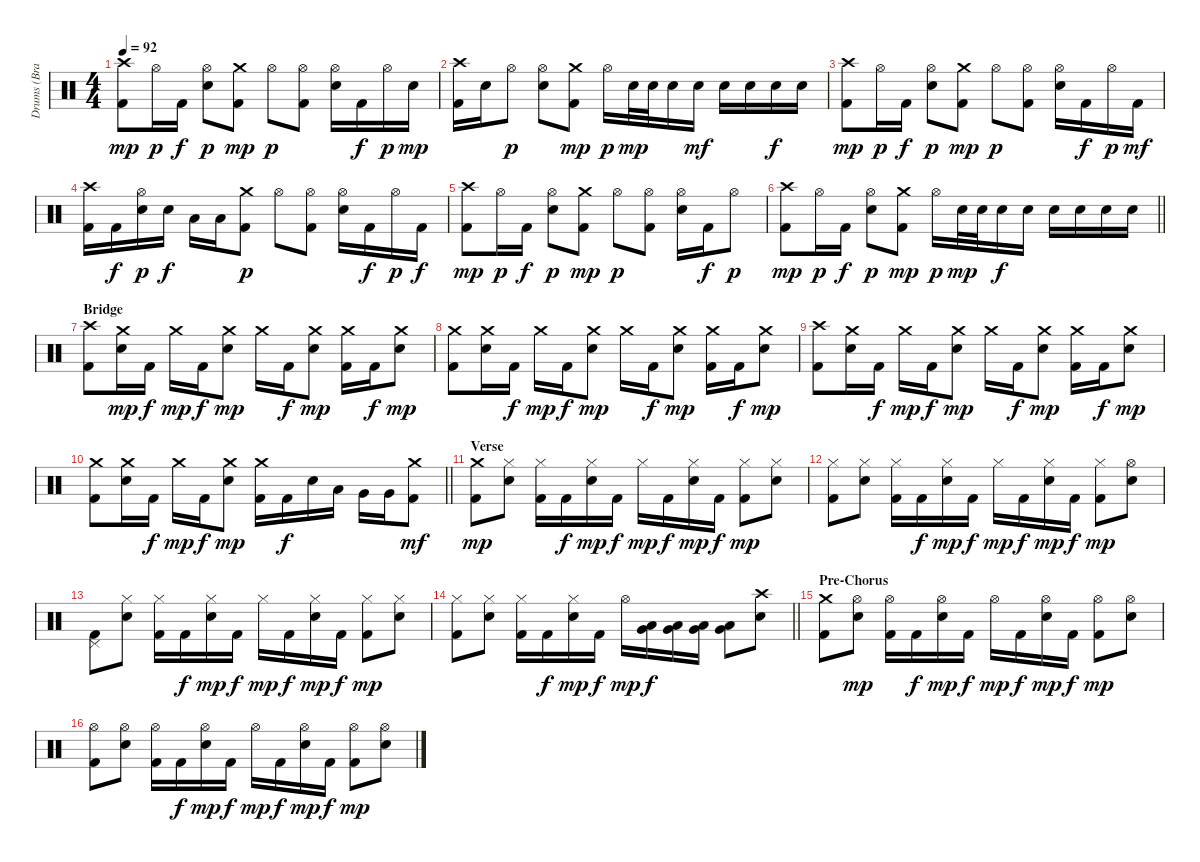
\track ("Drums (Brandon Saller)" "Drums (Bra") {instrument percussion}
\staff {score}
\articulation defaults
\ts (4 4)
\tempo 92
\clef neutral
\ks c
("Crash high (hit)" "Kick (hit) 2").8{dy mp} "Hi-Hat (open)".16{dy p} "Kick (hit) 2".16{dy f} ("Hi-Hat (open)" "Electric Snare (hit)").8{dy p} ("Crash medium (hit)" "Kick (hit) 2").8{dy mp} "Hi-Hat (open)".8{dy p} ("Hi-Hat (open)" "Kick (hit) 2").8 ("Hi-Hat (open)" "Electric Snare (hit)").16 "Kick (hit) 2".16{dy f} "Hi-Hat (open)".16{dy p} "Electric Snare (hit)".16{dy mp} |
("Crash high (hit)" "Kick (hit) 2").16 "Electric Snare (hit)".16 "Hi-Hat (open)".8{dy p} ("Hi-Hat (open)" "Electric Snare (hit)").8 ("Crash medium (hit)" "Kick (hit) 2").8{dy mp} "Hi-Hat (open)".16{dy p} "Electric Snare (hit)".32{dy mp} "Electric Snare (hit)".32 "Electric Snare (hit)".16 "Electric Snare (hit)".16{dy mf} "Electric Snare (hit)".16 "Electric Snare (hit)".16 "Electric Snare (hit)".16{dy f} "Electric Snare (hit)".16 |
("Crash high (hit)" "Kick (hit) 2").8{dy mp} "Hi-Hat (open)".16{dy p} "Kick (hit) 2".16{dy f} ("Hi-Hat (open)" "Electric Snare (hit)").8{dy p} ("Crash medium (hit)" "Kick (hit) 2").8{dy mp} "Hi-Hat (open)".8{dy p} ("Hi-Hat (open)" "Kick (hit) 2").8 ("Hi-Hat (open)" "Electric Snare (hit)").16 "Kick (hit) 2".16{dy f} "Hi-Hat (open)".16{dy p} "Kick (hit) 2".16{dy mf} |
("Crash high (hit)" "Kick (hit) 2").16 "Kick (hit) 2".16{dy f} ("Hi-Hat (open)" "Electric Snare (hit)").16{dy p} "Electric Snare (hit)".16{dy f} "Low Tom (hit)".16 "Low Tom (hit)".16 ("Crash medium (hit)" "Kick (hit) 2").8{dy p} "Hi-Hat (open)".8 ("Hi-Hat (open)" "Kick (hit) 2").8 ("Hi-Hat (open)" "Electric Snare (hit)").16 "Kick (hit) 2".16{dy f} "Hi-Hat (open)".16{dy p} "Kick (hit) 2".16{dy f} |
("Crash high (hit)" "Kick (hit) 2").8{dy mp} "Hi-Hat (open)".16{dy p} "Kick (hit) 2".16{dy f} ("Hi-Hat (open)" "Electric Snare (hit)").8{dy p} ("Crash medium (hit)" "Kick (hit) 2").8{dy mp} "Hi-Hat (open)".8{dy p} ("Hi-Hat (open)" "Kick (hit) 2").8 ("Hi-Hat (open)" "Electric Snare (hit)").16 "Kick (hit) 2".16{dy f} "Hi-Hat (open)".8{dy p} |
\barLineRight lightlight
("Crash high (hit)" "Kick (hit) 2").8{dy mp} "Hi-Hat (open)".16{dy p} "Kick (hit) 2".16{dy f} ("Hi-Hat (open)" "Electric Snare (hit)").8{dy p} ("Crash medium (hit)" "Kick (hit) 2").8{dy mp} "Hi-Hat (open)".16{dy p} "Electric Snare (hit)".32{dy mp} "Electric Snare (hit)".32 "Electric Snare (hit)".16{dy f} "Electric Snare (hit)".16 "Electric Snare (hit)".16 "Electric Snare (hit)".16 "Electric Snare (hit)".16 "Electric Snare (hit)".16 |
\section ("" "Bridge")
("Crash high (hit)" "Kick (hit) 2").8 ("Crash medium (hit)" "Electric Snare (hit)").16{dy mp} "Kick (hit) 2".16{dy f} "Crash medium (hit)".16{dy mp} "Kick (hit) 2".16{dy f} ("Crash medium (hit)" "Electric Snare (hit)").8{dy mp} "Crash medium (hit)".16 "Kick (hit) 2".16{dy f} ("Crash medium (hit)" "Electric Snare (hit)").8{dy mp} ("Crash medium (hit)" "Kick (hit) 2").16 "Kick (hit) 2".16{dy f} ("Crash medium (hit)" "Electric Snare (hit)").8{dy mp} |
("Crash medium (hit)" "Kick (hit) 2").8 ("Crash medium (hit)" "Electric Snare (hit)").16 "Kick (hit) 2".16{dy f} "Crash medium (hit)".16{dy mp} "Kick (hit) 2".16{dy f} ("Crash medium (hit)" "Electric Snare (hit)").8{dy mp} "Crash medium (hit)".16 "Kick (hit) 2".16{dy f} ("Crash medium (hit)" "Electric Snare (hit)").8{dy mp} ("Crash medium (hit)" "Kick (hit) 2").16 "Kick (hit) 2".16{dy f} ("Crash medium (hit)" "Electric Snare (hit)").8{dy mp} |
("Crash high (hit)" "Kick (hit) 2").8 ("Crash medium (hit)" "Electric Snare (hit)").16 "Kick (hit) 2".16{dy f} "Crash medium (hit)".16{dy mp} "Kick (hit) 2".16{dy f} ("Crash medium (hit)" "Electric Snare (hit)").8{dy mp} "Crash medium (hit)".16 "Kick (hit) 2".16{dy f} ("Crash medium (hit)" "Electric Snare (hit)").8{dy mp} ("Crash medium (hit)" "Kick (hit) 2").16 "Kick (hit) 2".16{dy f} ("Crash medium (hit)" "Electric Snare (hit)").8{dy mp} |
\barLineRight lightlight
("Crash medium (hit)" "Kick (hit) 2").8 ("Crash medium (hit)" "Electric Snare (hit)").16 "Kick (hit) 2".16{dy f} "Crash medium (hit)".16{dy mp} "Kick (hit) 2".16{dy f} ("Crash medium (hit)" "Electric Snare (hit)").8{dy mp} ("Crash medium (hit)" "Kick (hit) 2").16 "Kick (hit) 2".16{dy f} "Electric Snare (hit)".16 "Low Tom (hit)".16 "Very Low Tom (hit)".16 "Very Low Tom (hit)".16 ("Crash medium (hit)" "Kick (hit) 2").8{dy mf} |
\section ("" "Verse")
("Crash medium (hit)" "Kick (hit) 2").8{dy mp} ("Hi-Hat (closed)" "Electric Snare (hit)").8 ("Hi-Hat (closed)" "Kick (hit) 2").16 "Kick (hit) 2".16{dy f} ("Hi-Hat (closed)" "Electric Snare (hit)").16{dy mp} "Kick (hit) 2".16{dy f} "Hi-Hat (closed)".16{dy mp} "Kick (hit) 2".16{dy f} ("Hi-Hat (closed)" "Electric Snare (hit)").16{dy mp} "Kick (hit) 2".16{dy f} ("Hi-Hat (closed)" "Kick (hit) 2").8{dy mp} ("Hi-Hat (closed)" "Electric Snare (hit)").8 |
("Hi-Hat (closed)" "Kick (hit) 2").8 ("Hi-Hat (closed)" "Electric Snare (hit)").8 ("Hi-Hat (closed)" "Kick (hit) 2").16 "Kick (hit) 2".16{dy f} ("Hi-Hat (closed)" "Electric Snare (hit)").16{dy mp} "Kick (hit) 2".16{dy f} "Hi-Hat (closed)".16{dy mp} "Kick (hit) 2".16{dy f} ("Hi-Hat (closed)" "Electric Snare (hit)").16{dy mp} "Kick (hit) 2".16{dy f} ("Hi-Hat (closed)" "Kick (hit) 2").8{dy mp} ("Hi-Hat (open)" "Electric Snare (hit)").8 |
("Pedal Hi-Hat (hit)" "Kick (hit) 2").8 ("Hi-Hat (closed)" "Electric Snare (hit)").8 ("Hi-Hat (closed)" "Kick (hit) 2").16 "Kick (hit) 2".16{dy f} ("Hi-Hat (closed)" "Electric Snare (hit)").16{dy mp} "Kick (hit) 2".16{dy f} "Hi-Hat (closed)".16{dy mp} "Kick (hit) 2".16{dy f} ("Hi-Hat (closed)" "Electric Snare (hit)").16{dy mp} "Kick (hit) 2".16{dy f} ("Hi-Hat (closed)" "Kick (hit) 2").8{dy mp} ("Hi-Hat (closed)" "Electric Snare (hit)").8 |
\barLineRight lightlight
("Hi-Hat (closed)" "Kick (hit) 2").8 ("Hi-Hat (closed)" "Electric Snare (hit)").8 ("Hi-Hat (closed)" "Kick (hit) 2").16 "Kick (hit) 2".16{dy f} ("Hi-Hat (closed)" "Electric Snare (hit)").16{dy mp} "Kick (hit) 2".16{dy f} "Hi-Hat (open)".16{dy mp} ("Low Tom (hit)" "Very Low Tom (hit)").16{dy f} ("Low Tom (hit)" "Very Low Tom (hit)").16 ("Low Tom (hit)" "Very Low Tom (hit)").16 ("Low Tom (hit)" "Very Low Tom (hit)").8 ("Crash high (hit)" "Electric Snare (hit)").8 |
\section ("" "Pre-Chorus")
("Crash medium (hit)" "Kick (hit) 2").8 ("Hi-Hat (open)" "Electric Snare (hit)").8{dy mp} ("Hi-Hat (open)" "Kick (hit) 2").16 "Kick (hit) 2".16{dy f} ("Hi-Hat (open)" "Electric Snare (hit)").16{dy mp} "Kick (hit) 2".16{dy f} "Hi-Hat (open)".16{dy mp} "Kick (hit) 2".16{dy f} ("Hi-Hat (open)" "Electric Snare (hit)").16{dy mp} "Kick (hit) 2".16{dy f} ("Hi-Hat (open)" "Kick (hit) 2").8{dy mp} ("Hi-Hat (open)" "Electric Snare (hit)").8 |
("Hi-Hat (open)" "Kick (hit) 2").8 ("Hi-Hat (open)" "Electric Snare (hit)").8 ("Hi-Hat (open)" "Kick (hit) 2").16 "Kick (hit) 2".16{dy f} ("Hi-Hat (open)" "Electric Snare (hit)").16{dy mp} "Kick (hit) 2".16{dy f} "Hi-Hat (open)".16{dy mp} "Kick (hit) 2".16{dy f} ("Hi-Hat (open)" "Electric Snare (hit)").16{dy mp} "Kick (hit) 2".16{dy f} ("Hi-Hat (open)" "Kick (hit) 2").8{dy mp} ("Hi-Hat (open)" "Electric Snare (hit)").8
